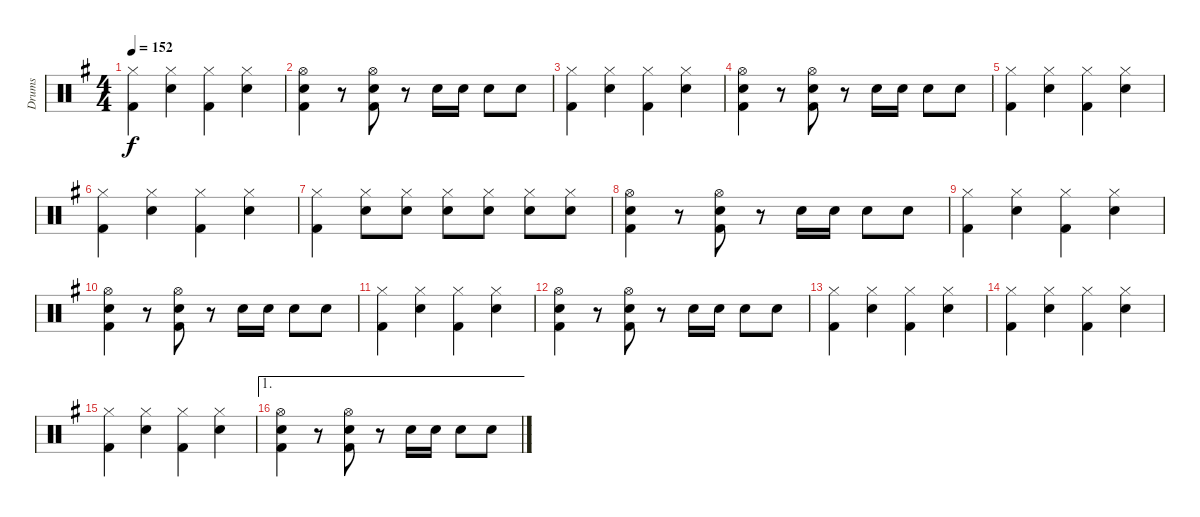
\track ("Drums" "Drums") {instrument percussion}
\staff {score}
\articulation defaults
\ts (4 4)
\tempo 152
\clef neutral
\ks g
("Hi-Hat (closed)" "Kick (hit) 2").4{dy f} ("Hi-Hat (closed)" "Snare (hit) 2").4 ("Hi-Hat (closed)" "Kick (hit) 2").4 ("Hi-Hat (closed)" "Snare (hit) 2").4 |
("Hi-Hat (open)" "Snare (hit) 2" "Kick (hit) 2").4 r.8 ("Hi-Hat (open)" "Snare (hit) 2" "Kick (hit) 2").8 r.8 "Snare (hit) 2".16 "Snare (hit) 2".16 "Snare (hit) 2".8 "Snare (hit) 2".8 |
("Hi-Hat (closed)" "Kick (hit) 2").4 ("Hi-Hat (closed)" "Snare (hit) 2").4 ("Hi-Hat (closed)" "Kick (hit) 2").4 ("Hi-Hat (closed)" "Snare (hit) 2").4 |
("Hi-Hat (open)" "Snare (hit) 2" "Kick (hit) 2").4 r.8 ("Hi-Hat (open)" "Snare (hit) 2" "Kick (hit) 2").8 r.8 "Snare (hit) 2".16 "Snare (hit) 2".16 "Snare (hit) 2".8 "Snare (hit) 2".8 |
("Hi-Hat (closed)" "Kick (hit) 2").4 ("Hi-Hat (closed)" "Snare (hit) 2").4 ("Hi-Hat (closed)" "Kick (hit) 2").4 ("Hi-Hat (closed)" "Snare (hit) 2").4 |
("Hi-Hat (closed)" "Kick (hit) 2").4 ("Hi-Hat (closed)" "Snare (hit) 2").4 ("Hi-Hat (closed)" "Kick (hit) 2").4 ("Hi-Hat (closed)" "Snare (hit) 2").4 |
("Hi-Hat (closed)" "Kick (hit) 2").4 ("Hi-Hat (closed)" "Snare (hit) 2").8 ("Hi-Hat (closed)" "Snare (hit) 2").8 ("Hi-Hat (closed)" "Snare (hit) 2").8 ("Hi-Hat (closed)" "Snare (hit) 2").8 ("Hi-Hat (closed)" "Snare (hit) 2").8 ("Hi-Hat (closed)" "Snare (hit) 2").8 |
("Hi-Hat (open)" "Snare (hit) 2" "Kick (hit) 2").4 r.8 ("Hi-Hat (open)" "Snare (hit) 2" "Kick (hit) 2").8 r.8 "Snare (hit) 2".16 "Snare (hit) 2".16 "Snare (hit) 2".8 "Snare (hit) 2".8 |
("Hi-Hat (closed)" "Kick (hit) 2").4 ("Hi-Hat (closed)" "Snare (hit) 2").4 ("Hi-Hat (closed)" "Kick (hit) 2").4 ("Hi-Hat (closed)" "Snare (hit) 2").4 |
("Hi-Hat (open)" "Snare (hit) 2" "Kick (hit) 2").4 r.8 ("Hi-Hat (open)" "Snare (hit) 2" "Kick (hit) 2").8 r.8 "Snare (hit) 2".16 "Snare (hit) 2".16 "Snare (hit) 2".8 "Snare (hit) 2".8 |
("Hi-Hat (closed)" "Kick (hit) 2").4 ("Hi-Hat (closed)" "Snare (hit) 2").4 ("Hi-Hat (closed)" "Kick (hit) 2").4 ("Hi-Hat (closed)" "Snare (hit) 2").4 |
("Hi-Hat (open)" "Snare (hit) 2" "Kick (hit) 2").4 r.8 ("Hi-Hat (open)" "Snare (hit) 2" "Kick (hit) 2").8 r.8 "Snare (hit) 2".16 "Snare (hit) 2".16 "Snare (hit) 2".8 "Snare (hit) 2".8 |
("Hi-Hat (closed)" "Kick (hit) 2").4 ("Hi-Hat (closed)" "Snare (hit) 2").4 ("Hi-Hat (closed)" "Kick (hit) 2").4 ("Hi-Hat (closed)" "Snare (hit) 2").4 |
("Hi-Hat (closed)" "Kick (hit) 2").4 ("Hi-Hat (closed)" "Snare (hit) 2").4 ("Hi-Hat (closed)" "Kick (hit) 2").4 ("Hi-Hat (closed)" "Snare (hit) 2").4 |
("Hi-Hat (closed)" "Kick (hit) 2").4 ("Hi-Hat (closed)" "Snare (hit) 2").4 ("Hi-Hat (closed)" "Kick (hit) 2").4 ("Hi-Hat (closed)" "Snare (hit) 2").4 |
\ae 1
("Hi-Hat (open)" "Snare (hit) 2" "Kick (hit) 2").4 r.8 ("Hi-Hat (open)" "Snare (hit) 2" "Kick (hit) 2").8 r.8 "Snare (hit) 2".16 "Snare (hit) 2".16 "Snare (hit) 2".8 "Snare (hit) 2".8
